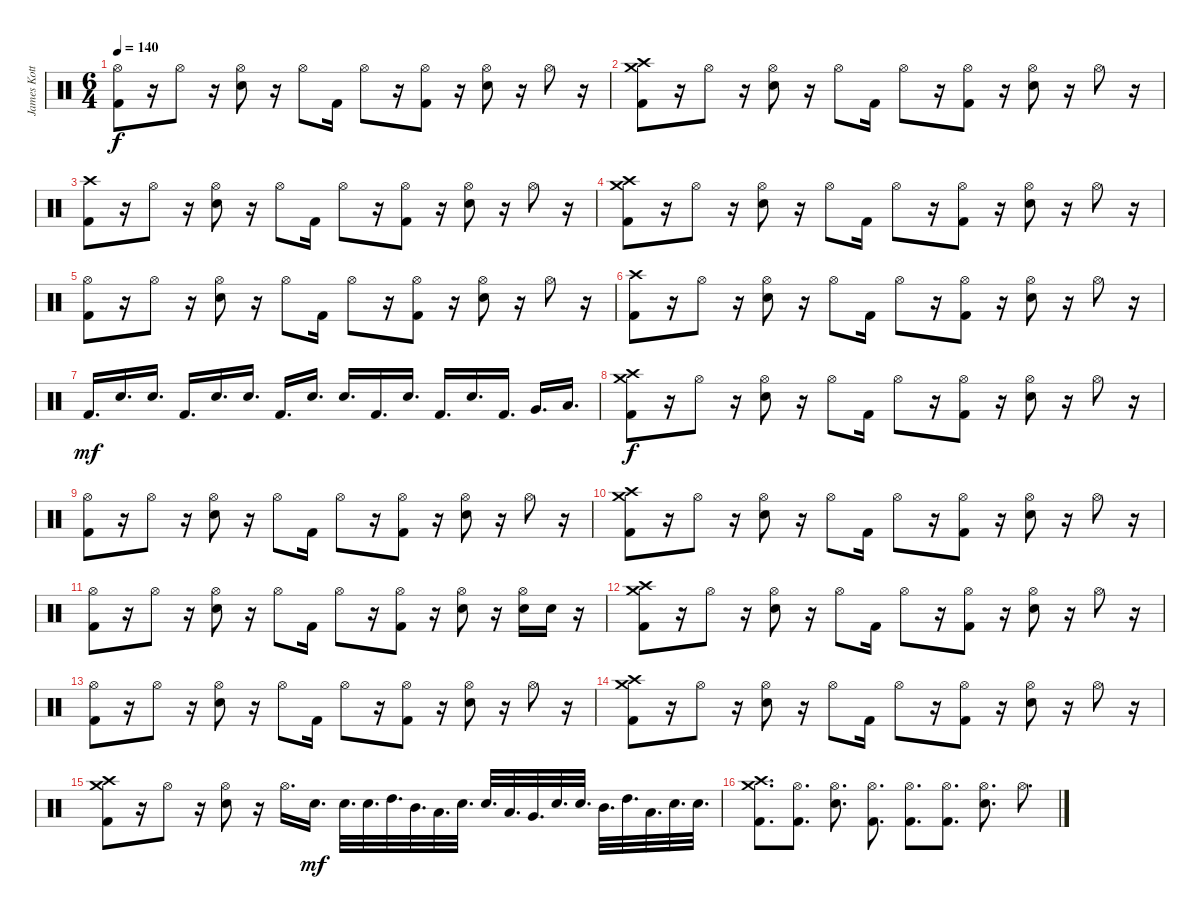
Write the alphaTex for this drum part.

\track ("James Kottak" "James Kott") {instrument percussion}
\staff {score}
\articulation defaults
\ts (6 4)
\tempo 140
\clef neutral
\ks c
("Hi-Hat (open)" "Kick (hit) 2").8{dy f} r.16 "Hi-Hat (open)".8 r.16 ("Hi-Hat (open)" "Electric Snare (hit)").8 r.16 "Hi-Hat (open)".8 "Kick (hit) 2".16 "Hi-Hat (open)".8 r.16 ("Hi-Hat (open)" "Kick (hit) 2").8 r.16 ("Hi-Hat (open)" "Electric Snare (hit)").8 r.16 "Hi-Hat (open)".8 r.16 |
("Crash high (hit)" "Crash medium (hit)" "Kick (hit) 2").8 r.16 "Hi-Hat (open)".8 r.16 ("Hi-Hat (open)" "Electric Snare (hit)").8 r.16 "Hi-Hat (open)".8 "Kick (hit) 2".16 "Hi-Hat (open)".8 r.16 ("Hi-Hat (open)" "Kick (hit) 2").8 r.16 ("Hi-Hat (open)" "Electric Snare (hit)").8 r.16 "Hi-Hat (open)".8 r.16 |
("Crash high (hit)" "Kick (hit) 2").8 r.16 "Hi-Hat (open)".8 r.16 ("Hi-Hat (open)" "Electric Snare (hit)").8 r.16 "Hi-Hat (open)".8 "Kick (hit) 2".16 "Hi-Hat (open)".8 r.16 ("Hi-Hat (open)" "Kick (hit) 2").8 r.16 ("Hi-Hat (open)" "Electric Snare (hit)").8 r.16 "Hi-Hat (open)".8 r.16 |
("Crash high (hit)" "Crash medium (hit)" "Kick (hit) 2").8 r.16 "Hi-Hat (open)".8 r.16 ("Hi-Hat (open)" "Electric Snare (hit)").8 r.16 "Hi-Hat (open)".8 "Kick (hit) 2".16 "Hi-Hat (open)".8 r.16 ("Hi-Hat (open)" "Kick (hit) 2").8 r.16 ("Hi-Hat (open)" "Electric Snare (hit)").8 r.16 "Hi-Hat (open)".8 r.16 |
("Hi-Hat (open)" "Kick (hit) 2").8 r.16 "Hi-Hat (open)".8 r.16 ("Hi-Hat (open)" "Electric Snare (hit)").8 r.16 "Hi-Hat (open)".8 "Kick (hit) 2".16 "Hi-Hat (open)".8 r.16 ("Hi-Hat (open)" "Kick (hit) 2").8 r.16 ("Hi-Hat (open)" "Electric Snare (hit)").8 r.16 "Hi-Hat (open)".8 r.16 |
("Crash high (hit)" "Kick (hit) 2").8 r.16 "Hi-Hat (open)".8 r.16 ("Hi-Hat (open)" "Electric Snare (hit)").8 r.16 "Hi-Hat (open)".8 "Kick (hit) 2".16 "Hi-Hat (open)".8 r.16 ("Hi-Hat (open)" "Kick (hit) 2").8 r.16 ("Hi-Hat (open)" "Electric Snare (hit)").8 r.16 "Hi-Hat (open)".8 r.16 |
"Kick (hit) 2".16{d dy mf} "Electric Snare (hit)".16{d} "Electric Snare (hit)".16{d} "Kick (hit) 2".16{d} "Electric Snare (hit)".16{d} "Electric Snare (hit)".16{d} "Kick (hit) 2".16{d} "Electric Snare (hit)".16{d} "Electric Snare (hit)".16{d} "Kick (hit) 2".16{d} "Electric Snare (hit)".16{d} "Kick (hit) 2".16{d} "Electric Snare (hit)".16{d} "Kick (hit) 2".16{d} "Very Low Tom (hit)".16{d} "Low Floor Tom (hit)".16{d} |
("Crash high (hit)" "Crash medium (hit)" "Kick (hit) 2").8{dy f} r.16 "Hi-Hat (open)".8 r.16 ("Hi-Hat (open)" "Electric Snare (hit)").8 r.16 "Hi-Hat (open)".8 "Kick (hit) 2".16 "Hi-Hat (open)".8 r.16 ("Hi-Hat (open)" "Kick (hit) 2").8 r.16 ("Hi-Hat (open)" "Electric Snare (hit)").8 r.16 "Hi-Hat (open)".8 r.16 |
("Hi-Hat (open)" "Kick (hit) 2").8 r.16 "Hi-Hat (open)".8 r.16 ("Hi-Hat (open)" "Electric Snare (hit)").8 r.16 "Hi-Hat (open)".8 "Kick (hit) 2".16 "Hi-Hat (open)".8 r.16 ("Hi-Hat (open)" "Kick (hit) 2").8 r.16 ("Hi-Hat (open)" "Electric Snare (hit)").8 r.16 "Hi-Hat (open)".8 r.16 |
("Crash high (hit)" "Crash medium (hit)" "Kick (hit) 2").8 r.16 "Hi-Hat (open)".8 r.16 ("Hi-Hat (open)" "Electric Snare (hit)").8 r.16 "Hi-Hat (open)".8 "Kick (hit) 2".16 "Hi-Hat (open)".8 r.16 ("Hi-Hat (open)" "Kick (hit) 2").8 r.16 ("Hi-Hat (open)" "Electric Snare (hit)").8 r.16 "Hi-Hat (open)".8 r.16 |
("Hi-Hat (open)" "Kick (hit) 2").8 r.16 "Hi-Hat (open)".8 r.16 ("Hi-Hat (open)" "Electric Snare (hit)").8 r.16 "Hi-Hat (open)".8 "Kick (hit) 2".16 "Hi-Hat (open)".8 r.16 ("Hi-Hat (open)" "Kick (hit) 2").8 r.16 ("Hi-Hat (open)" "Electric Snare (hit)").8 r.16 ("Hi-Hat (open)" "Electric Snare (hit)").16 "Electric Snare (hit)".16 r.16 |
("Crash high (hit)" "Crash medium (hit)" "Kick (hit) 2").8 r.16 "Hi-Hat (open)".8 r.16 ("Hi-Hat (open)" "Electric Snare (hit)").8 r.16 "Hi-Hat (open)".8 "Kick (hit) 2".16 "Hi-Hat (open)".8 r.16 ("Hi-Hat (open)" "Kick (hit) 2").8 r.16 ("Hi-Hat (open)" "Electric Snare (hit)").8 r.16 "Hi-Hat (open)".8 r.16 |
("Hi-Hat (open)" "Kick (hit) 2").8 r.16 "Hi-Hat (open)".8 r.16 ("Hi-Hat (open)" "Electric Snare (hit)").8 r.16 "Hi-Hat (open)".8 "Kick (hit) 2".16 "Hi-Hat (open)".8 r.16 ("Hi-Hat (open)" "Kick (hit) 2").8 r.16 ("Hi-Hat (open)" "Electric Snare (hit)").8 r.16 "Hi-Hat (open)".8 r.16 |
("Crash high (hit)" "Crash medium (hit)" "Kick (hit) 2").8 r.16 "Hi-Hat (open)".8 r.16 ("Hi-Hat (open)" "Electric Snare (hit)").8 r.16 "Hi-Hat (open)".8 "Kick (hit) 2".16 "Hi-Hat (open)".8 r.16 ("Hi-Hat (open)" "Kick (hit) 2").8 r.16 ("Hi-Hat (open)" "Electric Snare (hit)").8 r.16 "Hi-Hat (open)".8 r.16 |
("Crash high (hit)" "Crash medium (hit)" "Kick (hit) 2").8 r.16 "Hi-Hat (open)".8 r.16 ("Hi-Hat (open)" "Electric Snare (hit)").8 r.16 "Hi-Hat (open)".16{d} "Electric Snare (hit)".16{d dy mf} "Electric Snare (hit)".32{d} "Electric Snare (hit)".32{d} "High Tom (hit)".32{d} "Mid Tom (hit)".32{d} "Low Tom (hit)".32{d} "Electric Snare (hit)".32{d} "Electric Snare (hit)".32{d} "Low Floor Tom (hit)".32{d} "Very Low Tom (hit)".32{d} "Electric Snare (hit)".32{d} "Electric Snare (hit)".32{d} "Mid Tom (hit)".32{d} "High Tom (hit)".32{d} "Low Tom (hit)".32{d} "Electric Snare (hit)".32{d} "Electric Snare (hit)".32{d} |
("Crash high (hit)" "Crash medium (hit)" "Kick (hit) 2").8{d} ("Hi-Hat (open)" "Kick (hit) 2").8{d} ("Hi-Hat (open)" "Electric Snare (hit)").8{d} ("Hi-Hat (open)" "Kick (hit) 2").8{d} ("Hi-Hat (open)" "Kick (hit) 2").8{d} ("Hi-Hat (open)" "Kick (hit) 2").8{d} ("Hi-Hat (open)" "Electric Snare (hit)").8{d} "Hi-Hat (open)".8{d}
